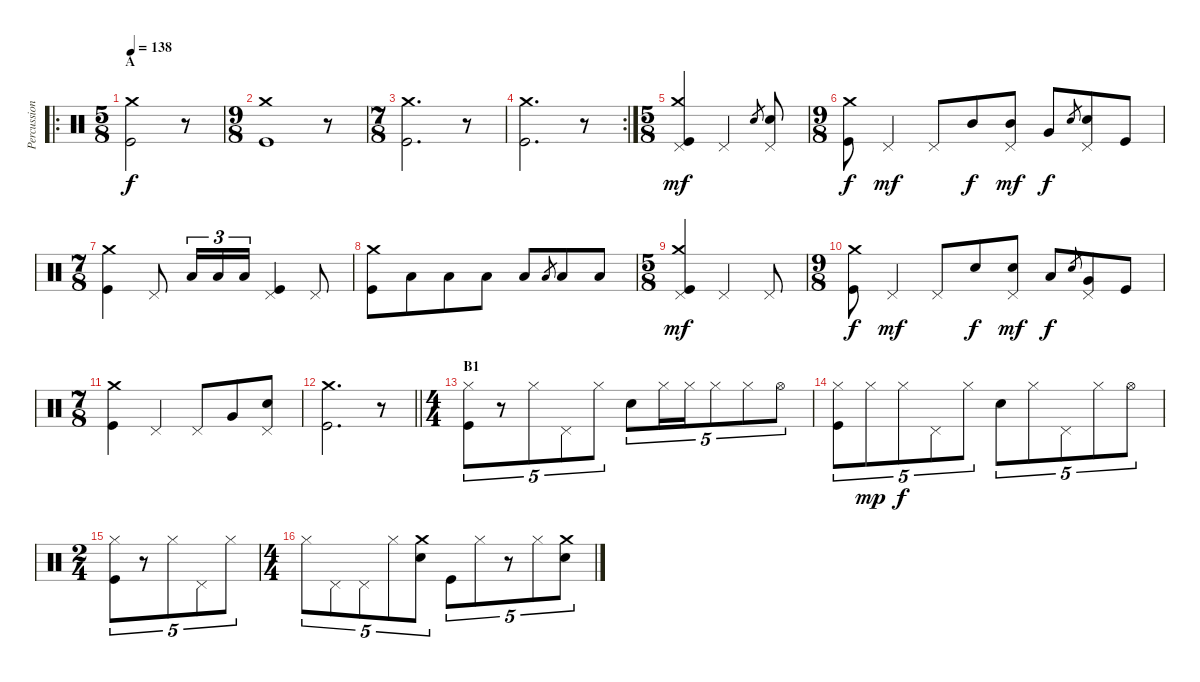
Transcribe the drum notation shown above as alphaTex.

\track ("Percussion" "Percussion") {instrument percussion}
\staff {score}
\articulation defaults
\ro
\ts (5 8)
\section ("" "A")
\tempo 138
\clef neutral
\ks c
("Kick (hit)" "Crash medium (hit)").2{dy f} r.8 |
\ts (9 8)
("Kick (hit)" "Crash medium (hit)").1 r.8 |
\ts (7 8)
("Kick (hit)" "Crash medium (hit)").2{d} r.8 |
\rc 2
("Kick (hit)" "Crash medium (hit)").2{d} r.8 |
\ts (5 8)
("Kick (hit)" "Crash medium (hit)" "Pedal Hi-Hat (hit)").4{dy mf} "Pedal Hi-Hat (hit)".4 "Snare (hit) 2".8{gr} ("Snare (hit) 2" "Pedal Hi-Hat (hit)").8 |
\ts (9 8)
("Kick (hit)" "Crash medium (hit)").8{dy f} "Pedal Hi-Hat (hit)".4{dy mf} "Pedal Hi-Hat (hit)".8 "Mid Tom (hit)".8{dy f} ("Mid Tom (hit)" "Pedal Hi-Hat (hit)").8{dy mf} "Very Low Tom (hit)".8{dy f} "Snare (hit) 2".8{gr} ("Snare (hit) 2" "Pedal Hi-Hat (hit)").8 "Kick (hit)".8 |
\ts (7 8)
("Kick (hit)" "Crash medium (hit)").4 "Pedal Hi-Hat (hit)".8 "Low Tom (hit)".16{tu (3 2)} "Low Tom (hit)".16{tu (3 2)} "Low Tom (hit)".16{tu (3 2)} ("Kick (hit)" "Pedal Hi-Hat (hit)").4 "Pedal Hi-Hat (hit)".8 |
("Kick (hit)" "Crash medium (hit)").8 "Low Floor Tom (hit)".8 "Low Tom (hit)".8 "Low Tom (hit)".8 "Low Floor Tom (hit)".8 "Low Tom (hit)".8{gr} "Low Tom (hit)".8 "Low Floor Tom (hit)".8 |
\ts (5 8)
("Kick (hit)" "Crash medium (hit)" "Pedal Hi-Hat (hit)").4{dy mf} "Pedal Hi-Hat (hit)".4 "Pedal Hi-Hat (hit)".8 |
\ts (9 8)
("Kick (hit)" "Crash medium (hit)").8{dy f} "Pedal Hi-Hat (hit)".4{dy mf} "Pedal Hi-Hat (hit)".8 "Snare (hit) 2".8{dy f} ("Snare (hit) 2" "Pedal Hi-Hat (hit)").8{dy mf} "Low Floor Tom (hit)".8{dy f} "Snare (hit) 2".8{gr} ("Very Low Tom (hit)" "Pedal Hi-Hat (hit)").8 "Kick (hit)".8 |
\ts (7 8)
("Kick (hit)" "Crash medium (hit)").4 "Pedal Hi-Hat (hit)".4 "Pedal Hi-Hat (hit)".8 "Very Low Tom (hit)".8 ("Snare (hit) 2" "Pedal Hi-Hat (hit)").8 |
\barLineRight lightlight
("Kick (hit)" "Crash medium (hit)").2{d} r.8 |
\ts (4 4)
\section ("" "B1")
("Kick (hit)" "Hi-Hat (closed)").8{tu (5 4)} r.8{tu (5 4)} "Hi-Hat (closed)".8{tu (5 4)} "Pedal Hi-Hat (hit)".8{tu (5 4)} "Hi-Hat (closed)".8{tu (5 4)} "Snare (hit) 2".8{tu (5 4)} "Hi-Hat (closed)".16{tu (5 4)} "Hi-Hat (closed)".16{tu (5 4)} "Hi-Hat (closed)".8{tu (5 4)} "Hi-Hat (closed)".8{tu (5 4)} "Hi-Hat (open)".8{tu (5 4)} |
("Kick (hit)" "Hi-Hat (closed)").8{tu (5 4)} "Hi-Hat (closed)".8{tu (5 4) dy mp} "Hi-Hat (closed)".8{tu (5 4) dy f} "Pedal Hi-Hat (hit)".8{tu (5 4)} "Hi-Hat (closed)".8{tu (5 4)} "Snare (hit) 2".8{tu (5 4)} "Hi-Hat (closed)".8{tu (5 4)} "Pedal Hi-Hat (hit)".8{tu (5 4)} "Hi-Hat (closed)".8{tu (5 4)} "Hi-Hat (open)".8{tu (5 4)} |
\ts (2 4)
("Kick (hit)" "Hi-Hat (closed)").8{tu (5 4)} r.8{tu (5 4)} "Hi-Hat (closed)".8{tu (5 4)} "Pedal Hi-Hat (hit)".8{tu (5 4)} "Hi-Hat (closed)".8{tu (5 4)} |
\ts (4 4)
"Hi-Hat (closed)".8{tu (5 4)} "Pedal Hi-Hat (hit)".8{tu (5 4)} "Pedal Hi-Hat (hit)".8{tu (5 4)} "Hi-Hat (closed)".8{tu (5 4)} ("Snare (hit) 2" "Crash medium (hit)").8{tu (5 4)} "Kick (hit)".8{tu (5 4)} "Hi-Hat (closed)".8{tu (5 4)} r.8{tu (5 4)} "Hi-Hat (closed)".8{tu (5 4)} ("Snare (hit) 2" "Crash medium (hit)").8{tu (5 4)}
